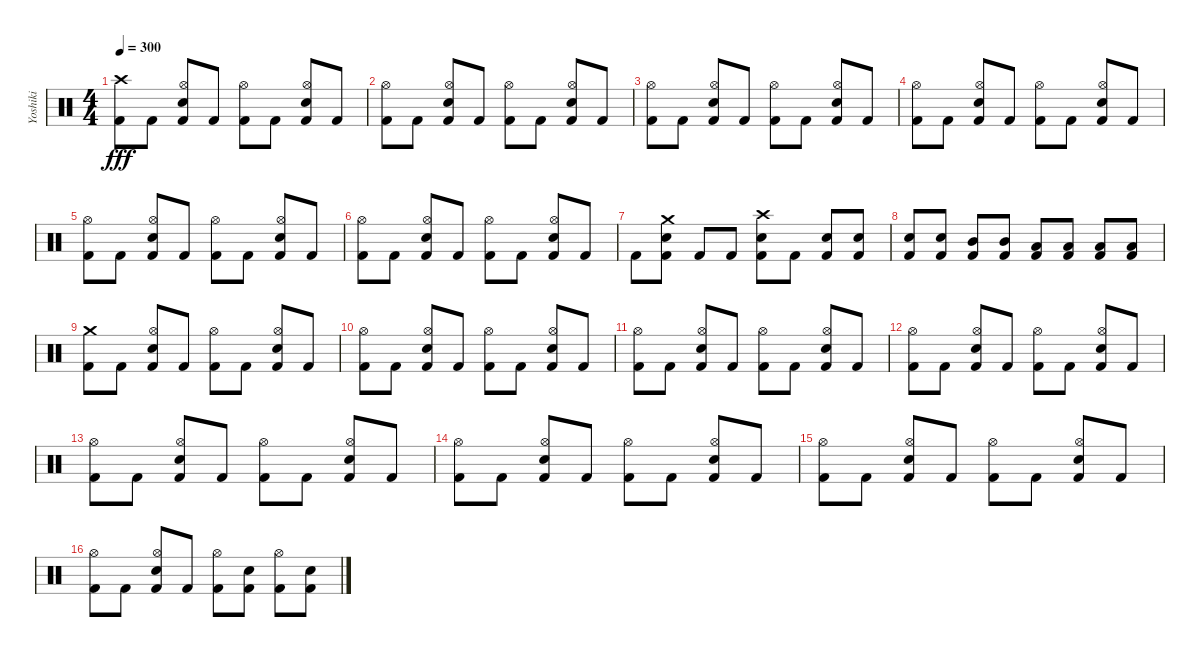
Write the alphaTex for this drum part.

\track ("Yoshiki" "Yoshiki") {instrument percussion}
\staff {score}
\articulation defaults
\ts (4 4)
\tempo 300
\clef neutral
\ks c
("Crash high (hit)" "Kick (hit) 2").8{dy fff} "Kick (hit) 2".8 ("Hi-Hat (open)" "Snare (hit) 2" "Kick (hit) 2").8 "Kick (hit) 2".8 ("Hi-Hat (open)" "Kick (hit) 2").8 "Kick (hit) 2".8 ("Hi-Hat (open)" "Snare (hit) 2" "Kick (hit) 2").8 "Kick (hit) 2".8 |
("Hi-Hat (open)" "Kick (hit) 2").8 "Kick (hit) 2".8 ("Hi-Hat (open)" "Snare (hit) 2" "Kick (hit) 2").8 "Kick (hit) 2".8 ("Hi-Hat (open)" "Kick (hit) 2").8 "Kick (hit) 2".8 ("Hi-Hat (open)" "Snare (hit) 2" "Kick (hit) 2").8 "Kick (hit) 2".8 |
("Hi-Hat (open)" "Kick (hit) 2").8 "Kick (hit) 2".8 ("Hi-Hat (open)" "Snare (hit) 2" "Kick (hit) 2").8 "Kick (hit) 2".8 ("Hi-Hat (open)" "Kick (hit) 2").8 "Kick (hit) 2".8 ("Hi-Hat (open)" "Snare (hit) 2" "Kick (hit) 2").8 "Kick (hit) 2".8 |
("Hi-Hat (open)" "Kick (hit) 2").8 "Kick (hit) 2".8 ("Hi-Hat (open)" "Snare (hit) 2" "Kick (hit) 2").8 "Kick (hit) 2".8 ("Hi-Hat (open)" "Kick (hit) 2").8 "Kick (hit) 2".8 ("Hi-Hat (open)" "Snare (hit) 2" "Kick (hit) 2").8 "Kick (hit) 2".8 |
("Hi-Hat (open)" "Kick (hit) 2").8 "Kick (hit) 2".8 ("Hi-Hat (open)" "Snare (hit) 2" "Kick (hit) 2").8 "Kick (hit) 2".8 ("Hi-Hat (open)" "Kick (hit) 2").8 "Kick (hit) 2".8 ("Hi-Hat (open)" "Snare (hit) 2" "Kick (hit) 2").8 "Kick (hit) 2".8 |
("Hi-Hat (open)" "Kick (hit) 2").8 "Kick (hit) 2".8 ("Hi-Hat (open)" "Snare (hit) 2" "Kick (hit) 2").8 "Kick (hit) 2".8 ("Hi-Hat (open)" "Kick (hit) 2").8 "Kick (hit) 2".8 ("Hi-Hat (open)" "Snare (hit) 2" "Kick (hit) 2").8 "Kick (hit) 2".8 |
"Kick (hit) 2".8 ("Crash medium (hit)" "Snare (hit) 2" "Kick (hit) 2").8 "Kick (hit) 2".8 "Kick (hit) 2".8 ("Crash high (hit)" "Snare (hit) 2" "Kick (hit) 2").8 "Kick (hit) 2".8 ("Snare (hit) 2" "Kick (hit) 2").8 ("Snare (hit) 2" "Kick (hit) 2").8 |
("Snare (hit) 2" "Kick (hit) 2").8 ("Snare (hit) 2" "Kick (hit) 2").8 ("Mid Tom (hit)" "Kick (hit) 2").8 ("Mid Tom (hit)" "Kick (hit) 2").8 ("Low Tom (hit)" "Kick (hit) 2").8 ("Low Tom (hit)" "Kick (hit) 2").8 ("Low Tom (hit)" "Kick (hit) 2").8 ("Low Tom (hit)" "Kick (hit) 2").8 |
("Crash medium (hit)" "Kick (hit) 2").8 "Kick (hit) 2".8 ("Hi-Hat (open)" "Snare (hit) 2" "Kick (hit) 2").8 "Kick (hit) 2".8 ("Hi-Hat (open)" "Kick (hit) 2").8 "Kick (hit) 2".8 ("Hi-Hat (open)" "Snare (hit) 2" "Kick (hit) 2").8 "Kick (hit) 2".8 |
("Hi-Hat (open)" "Kick (hit) 2").8 "Kick (hit) 2".8 ("Hi-Hat (open)" "Snare (hit) 2" "Kick (hit) 2").8 "Kick (hit) 2".8 ("Hi-Hat (open)" "Kick (hit) 2").8 "Kick (hit) 2".8 ("Hi-Hat (open)" "Snare (hit) 2" "Kick (hit) 2").8 "Kick (hit) 2".8 |
("Hi-Hat (open)" "Kick (hit) 2").8 "Kick (hit) 2".8 ("Hi-Hat (open)" "Snare (hit) 2" "Kick (hit) 2").8 "Kick (hit) 2".8 ("Hi-Hat (open)" "Kick (hit) 2").8 "Kick (hit) 2".8 ("Hi-Hat (open)" "Snare (hit) 2" "Kick (hit) 2").8 "Kick (hit) 2".8 |
("Hi-Hat (open)" "Kick (hit) 2").8 "Kick (hit) 2".8 ("Hi-Hat (open)" "Snare (hit) 2" "Kick (hit) 2").8 "Kick (hit) 2".8 ("Hi-Hat (open)" "Kick (hit) 2").8 "Kick (hit) 2".8 ("Hi-Hat (open)" "Snare (hit) 2" "Kick (hit) 2").8 "Kick (hit) 2".8 |
("Hi-Hat (open)" "Kick (hit) 2").8 "Kick (hit) 2".8 ("Hi-Hat (open)" "Snare (hit) 2" "Kick (hit) 2").8 "Kick (hit) 2".8 ("Hi-Hat (open)" "Kick (hit) 2").8 "Kick (hit) 2".8 ("Hi-Hat (open)" "Snare (hit) 2" "Kick (hit) 2").8 "Kick (hit) 2".8 |
("Hi-Hat (open)" "Kick (hit) 2").8 "Kick (hit) 2".8 ("Hi-Hat (open)" "Snare (hit) 2" "Kick (hit) 2").8 "Kick (hit) 2".8 ("Hi-Hat (open)" "Kick (hit) 2").8 "Kick (hit) 2".8 ("Hi-Hat (open)" "Snare (hit) 2" "Kick (hit) 2").8 "Kick (hit) 2".8 |
("Hi-Hat (open)" "Kick (hit) 2").8 "Kick (hit) 2".8 ("Hi-Hat (open)" "Snare (hit) 2" "Kick (hit) 2").8 "Kick (hit) 2".8 ("Hi-Hat (open)" "Kick (hit) 2").8 "Kick (hit) 2".8 ("Hi-Hat (open)" "Snare (hit) 2" "Kick (hit) 2").8 "Kick (hit) 2".8 |
("Hi-Hat (open)" "Kick (hit) 2").8 "Kick (hit) 2".8 ("Hi-Hat (open)" "Snare (hit) 2" "Kick (hit) 2").8 "Kick (hit) 2".8 ("Hi-Hat (open)" "Kick (hit) 2").8 ("Snare (hit) 2" "Kick (hit) 2").8 ("Hi-Hat (open)" "Kick (hit) 2").8 ("Snare (hit) 2" "Kick (hit) 2").8
